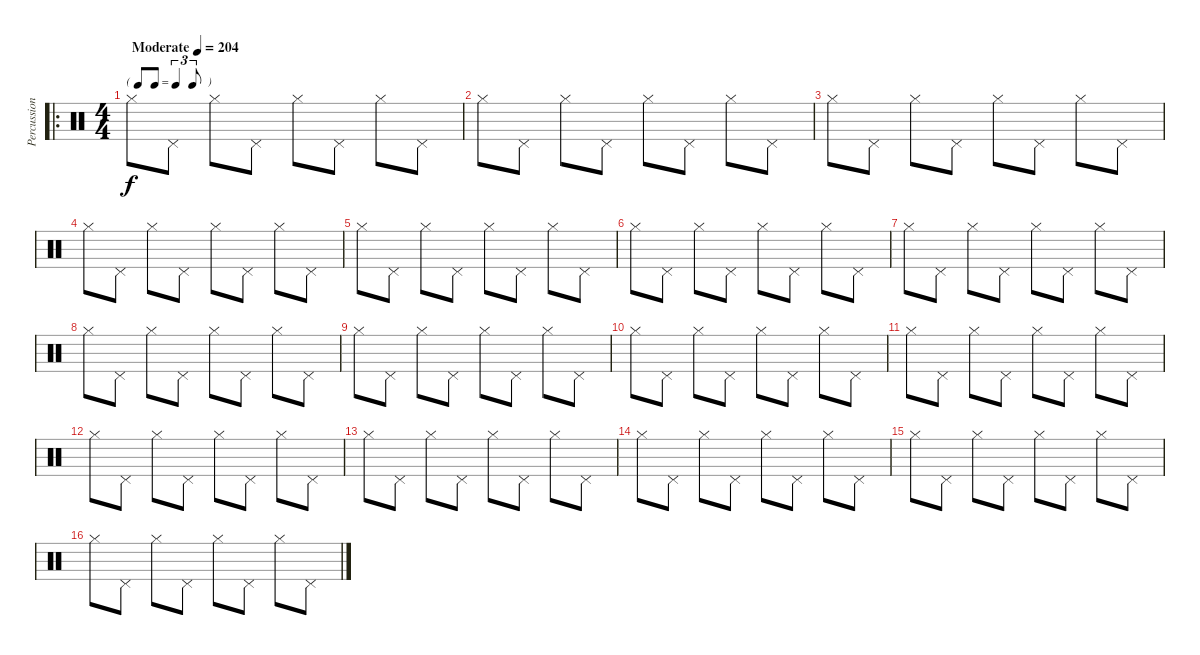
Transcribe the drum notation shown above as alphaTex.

\track ("Percussion" "Percussion") {instrument percussion}
\staff {score}
\articulation defaults
\ro
\ts (4 4)
\tf triplet8th
\tempo (204 "Moderate")
\clef neutral
\ks c "Hi-Hat (closed)".8{dy f} "Pedal Hi-Hat (hit)".8 "Hi-Hat (closed)".8 "Pedal Hi-Hat (hit)".8 "Hi-Hat (closed)".8 "Pedal Hi-Hat (hit)".8 "Hi-Hat (closed)".8 "Pedal Hi-Hat (hit)".8
|
"Hi-Hat (closed)".8 "Pedal Hi-Hat (hit)".8 "Hi-Hat (closed)".8 "Pedal Hi-Hat (hit)".8 "Hi-Hat (closed)".8 "Pedal Hi-Hat (hit)".8 "Hi-Hat (closed)".8 "Pedal Hi-Hat (hit)".8 |
"Hi-Hat (closed)".8 "Pedal Hi-Hat (hit)".8 "Hi-Hat (closed)".8 "Pedal Hi-Hat (hit)".8 "Hi-Hat (closed)".8 "Pedal Hi-Hat (hit)".8 "Hi-Hat (closed)".8 "Pedal Hi-Hat (hit)".8 |
"Hi-Hat (closed)".8 "Pedal Hi-Hat (hit)".8 "Hi-Hat (closed)".8 "Pedal Hi-Hat (hit)".8 "Hi-Hat (closed)".8 "Pedal Hi-Hat (hit)".8 "Hi-Hat (closed)".8 "Pedal Hi-Hat (hit)".8 |
"Hi-Hat (closed)".8 "Pedal Hi-Hat (hit)".8 "Hi-Hat (closed)".8 "Pedal Hi-Hat (hit)".8 "Hi-Hat (closed)".8 "Pedal Hi-Hat (hit)".8 "Hi-Hat (closed)".8 "Pedal Hi-Hat (hit)".8 |
"Hi-Hat (closed)".8 "Pedal Hi-Hat (hit)".8 "Hi-Hat (closed)".8 "Pedal Hi-Hat (hit)".8 "Hi-Hat (closed)".8 "Pedal Hi-Hat (hit)".8 "Hi-Hat (closed)".8 "Pedal Hi-Hat (hit)".8 |
"Hi-Hat (closed)".8 "Pedal Hi-Hat (hit)".8 "Hi-Hat (closed)".8 "Pedal Hi-Hat (hit)".8 "Hi-Hat (closed)".8 "Pedal Hi-Hat (hit)".8 "Hi-Hat (closed)".8 "Pedal Hi-Hat (hit)".8 |
"Hi-Hat (closed)".8 "Pedal Hi-Hat (hit)".8 "Hi-Hat (closed)".8 "Pedal Hi-Hat (hit)".8 "Hi-Hat (closed)".8 "Pedal Hi-Hat (hit)".8 "Hi-Hat (closed)".8 "Pedal Hi-Hat (hit)".8 |
"Hi-Hat (closed)".8 "Pedal Hi-Hat (hit)".8 "Hi-Hat (closed)".8 "Pedal Hi-Hat (hit)".8 "Hi-Hat (closed)".8 "Pedal Hi-Hat (hit)".8 "Hi-Hat (closed)".8 "Pedal Hi-Hat (hit)".8 |
"Hi-Hat (closed)".8 "Pedal Hi-Hat (hit)".8 "Hi-Hat (closed)".8 "Pedal Hi-Hat (hit)".8 "Hi-Hat (closed)".8 "Pedal Hi-Hat (hit)".8 "Hi-Hat (closed)".8 "Pedal Hi-Hat (hit)".8 |
"Hi-Hat (closed)".8 "Pedal Hi-Hat (hit)".8 "Hi-Hat (closed)".8 "Pedal Hi-Hat (hit)".8 "Hi-Hat (closed)".8 "Pedal Hi-Hat (hit)".8 "Hi-Hat (closed)".8 "Pedal Hi-Hat (hit)".8 |
"Hi-Hat (closed)".8 "Pedal Hi-Hat (hit)".8 "Hi-Hat (closed)".8 "Pedal Hi-Hat (hit)".8 "Hi-Hat (closed)".8 "Pedal Hi-Hat (hit)".8 "Hi-Hat (closed)".8 "Pedal Hi-Hat (hit)".8 |
"Hi-Hat (closed)".8 "Pedal Hi-Hat (hit)".8 "Hi-Hat (closed)".8 "Pedal Hi-Hat (hit)".8 "Hi-Hat (closed)".8 "Pedal Hi-Hat (hit)".8 "Hi-Hat (closed)".8 "Pedal Hi-Hat (hit)".8 |
"Hi-Hat (closed)".8 "Pedal Hi-Hat (hit)".8 "Hi-Hat (closed)".8 "Pedal Hi-Hat (hit)".8 "Hi-Hat (closed)".8 "Pedal Hi-Hat (hit)".8 "Hi-Hat (closed)".8 "Pedal Hi-Hat (hit)".8 |
"Hi-Hat (closed)".8 "Pedal Hi-Hat (hit)".8 "Hi-Hat (closed)".8 "Pedal Hi-Hat (hit)".8 "Hi-Hat (closed)".8 "Pedal Hi-Hat (hit)".8 "Hi-Hat (closed)".8 "Pedal Hi-Hat (hit)".8 |
"Hi-Hat (closed)".8 "Pedal Hi-Hat (hit)".8 "Hi-Hat (closed)".8 "Pedal Hi-Hat (hit)".8 "Hi-Hat (closed)".8 "Pedal Hi-Hat (hit)".8 "Hi-Hat (closed)".8 "Pedal Hi-Hat (hit)".8
